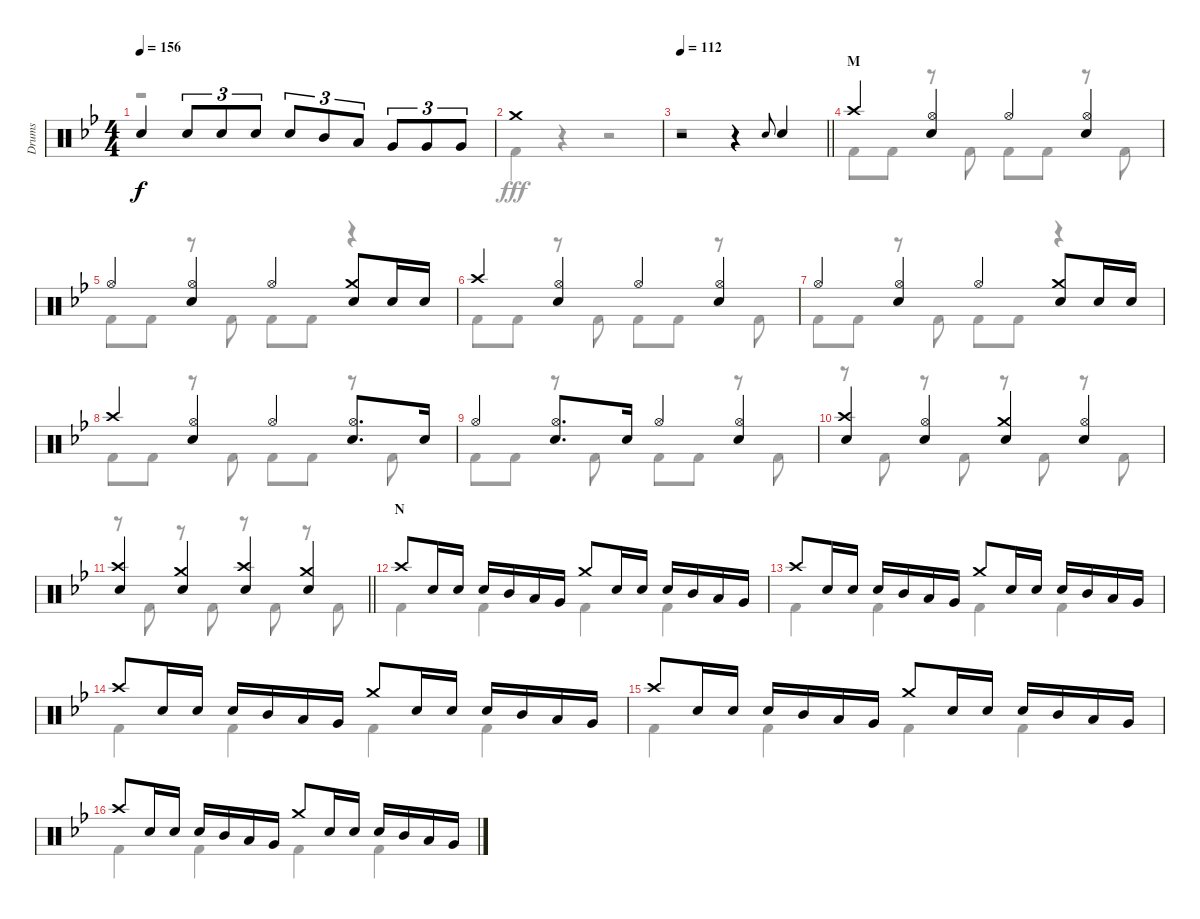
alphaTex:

\track ("Drums" "Drums") {instrument percussion}
\staff {score}
\articulation defaults
\voice
\ts (4 4)
\tempo 156
\clef neutral
\ks bb "Snare (hit) 2".4{dy f} "Snare (hit) 2".8{tu (3 2)} "Snare (hit) 2".8{tu (3 2)} "Snare (hit) 2".8{tu (3 2)} "Snare (hit) 2".8{tu (3 2)} "Mid Tom (hit)".8{tu (3 2)} "Low Tom (hit)".8{tu (3 2)} "Very Low Tom (hit)".8{tu (3 2)} "Very Low Tom (hit)".8{tu (3 2)} "Very Low Tom (hit)".8{tu (3 2)}
|
"Crash medium (hit)".1 |
\tempo 112
\barLineRight lightlight
r.2 r.4 "Snare (hit) 2".8{gr onbeat} "Snare (hit) 2".4 |
\section ("" "M")
"Crash high (hit)".4 ("Hi-Hat (open)" "Snare (hit) 2").4 "Hi-Hat (open)".4 ("Hi-Hat (open)" "Snare (hit) 2").4 |
"Hi-Hat (open)".4 ("Hi-Hat (open)" "Snare (hit) 2").4 "Hi-Hat (open)".4 ("Crash medium (hit)" "Snare (hit) 2").8 "Snare (hit) 2".16 "Snare (hit) 2".16 |
"Crash high (hit)".4 ("Hi-Hat (open)" "Snare (hit) 2").4 "Hi-Hat (open)".4 ("Hi-Hat (open)" "Snare (hit) 2").4 |
"Hi-Hat (open)".4 ("Hi-Hat (open)" "Snare (hit) 2").4 "Hi-Hat (open)".4 ("Crash medium (hit)" "Snare (hit) 2").8 "Snare (hit) 2".16 "Snare (hit) 2".16 |
"Crash high (hit)".4 ("Hi-Hat (open)" "Snare (hit) 2").4 "Hi-Hat (open)".4 ("Hi-Hat (open)" "Snare (hit) 2").8{d} "Snare (hit) 2".16 |
"Hi-Hat (open)".4 ("Hi-Hat (open)" "Snare (hit) 2").8{d} "Snare (hit) 2".16 "Hi-Hat (open)".4 ("Hi-Hat (open)" "Snare (hit) 2").4 |
("Crash high (hit)" "Snare (hit) 2").4 ("Hi-Hat (open)" "Snare (hit) 2").4 ("Crash medium (hit)" "Snare (hit) 2").4 ("Hi-Hat (open)" "Snare (hit) 2").4 |
\barLineRight lightlight
("Crash high (hit)" "Snare (hit) 2").4 ("Crash medium (hit)" "Snare (hit) 2").4 ("Crash high (hit)" "Snare (hit) 2").4 ("Crash medium (hit)" "Snare (hit) 2").4 |
\section ("" "N")
"Crash high (hit)".8 "Snare (hit) 2".16 "Snare (hit) 2".16 "Snare (hit) 2".16 "Mid Tom (hit)".16 "Low Tom (hit)".16 "Very Low Tom (hit)".16 "Crash medium (hit)".8 "Snare (hit) 2".16 "Snare (hit) 2".16 "Snare (hit) 2".16 "Mid Tom (hit)".16 "Low Tom (hit)".16 "Very Low Tom (hit)".16 |
"Crash high (hit)".8 "Snare (hit) 2".16 "Snare (hit) 2".16 "Snare (hit) 2".16 "Mid Tom (hit)".16 "Low Tom (hit)".16 "Very Low Tom (hit)".16 "Crash medium (hit)".8 "Snare (hit) 2".16 "Snare (hit) 2".16 "Snare (hit) 2".16 "Mid Tom (hit)".16 "Low Tom (hit)".16 "Very Low Tom (hit)".16 |
"Crash high (hit)".8 "Snare (hit) 2".16 "Snare (hit) 2".16 "Snare (hit) 2".16 "Mid Tom (hit)".16 "Low Tom (hit)".16 "Very Low Tom (hit)".16 "Crash medium (hit)".8 "Snare (hit) 2".16 "Snare (hit) 2".16 "Snare (hit) 2".16 "Mid Tom (hit)".16 "Low Tom (hit)".16 "Very Low Tom (hit)".16 |
"Crash high (hit)".8 "Snare (hit) 2".16 "Snare (hit) 2".16 "Snare (hit) 2".16 "Mid Tom (hit)".16 "Low Tom (hit)".16 "Very Low Tom (hit)".16 "Crash medium (hit)".8 "Snare (hit) 2".16 "Snare (hit) 2".16 "Snare (hit) 2".16 "Mid Tom (hit)".16 "Low Tom (hit)".16 "Very Low Tom (hit)".16 |
"Crash high (hit)".8 "Snare (hit) 2".16 "Snare (hit) 2".16 "Snare (hit) 2".16 "Mid Tom (hit)".16 "Low Tom (hit)".16 "Very Low Tom (hit)".16 "Crash medium (hit)".8 "Snare (hit) 2".16 "Snare (hit) 2".16 "Snare (hit) 2".16 "Mid Tom (hit)".16 "Low Tom (hit)".16 "Very Low Tom (hit)".16
\voice
\clef neutral
\ottava regular
\simile none
\ks bb
r.1{dy fff} |
"Kick (hit) 2".4 r.4 r.2 |
\barLineRight lightlight
r.1 |
"Kick (hit) 2".8 "Kick (hit) 2".8 r.8 "Kick (hit) 2".8 "Kick (hit) 2".8 "Kick (hit) 2".8 r.8 "Kick (hit) 2".8 |
"Kick (hit) 2".8 "Kick (hit) 2".8 r.8 "Kick (hit) 2".8 "Kick (hit) 2".8 "Kick (hit) 2".8 r.4 |
"Kick (hit) 2".8 "Kick (hit) 2".8 r.8 "Kick (hit) 2".8 "Kick (hit) 2".8 "Kick (hit) 2".8 r.8 "Kick (hit) 2".8 |
"Kick (hit) 2".8 "Kick (hit) 2".8 r.8 "Kick (hit) 2".8 "Kick (hit) 2".8 "Kick (hit) 2".8 r.4 |
"Kick (hit) 2".8 "Kick (hit) 2".8 r.8 "Kick (hit) 2".8 "Kick (hit) 2".8 "Kick (hit) 2".8 r.8 "Kick (hit) 2".8 |
"Kick (hit) 2".8 "Kick (hit) 2".8 r.8 "Kick (hit) 2".8 "Kick (hit) 2".8 "Kick (hit) 2".8 r.8 "Kick (hit) 2".8 |
r.8 "Kick (hit) 2".8 r.8 "Kick (hit) 2".8 r.8 "Kick (hit) 2".8 r.8 "Kick (hit) 2".8 |
\barLineRight lightlight
r.8 "Kick (hit) 2".8 r.8 "Kick (hit) 2".8 r.8 "Kick (hit) 2".8 r.8 "Kick (hit) 2".8 |
"Kick (hit) 2".4 "Kick (hit) 2".4 "Kick (hit) 2".4 "Kick (hit) 2".4 |
"Kick (hit) 2".4 "Kick (hit) 2".4 "Kick (hit) 2".4 "Kick (hit) 2".4 |
"Kick (hit) 2".4 "Kick (hit) 2".4 "Kick (hit) 2".4 "Kick (hit) 2".4 |
"Kick (hit) 2".4 "Kick (hit) 2".4 "Kick (hit) 2".4 "Kick (hit) 2".4 |
"Kick (hit) 2".4 "Kick (hit) 2".4 "Kick (hit) 2".4 "Kick (hit) 2".4
